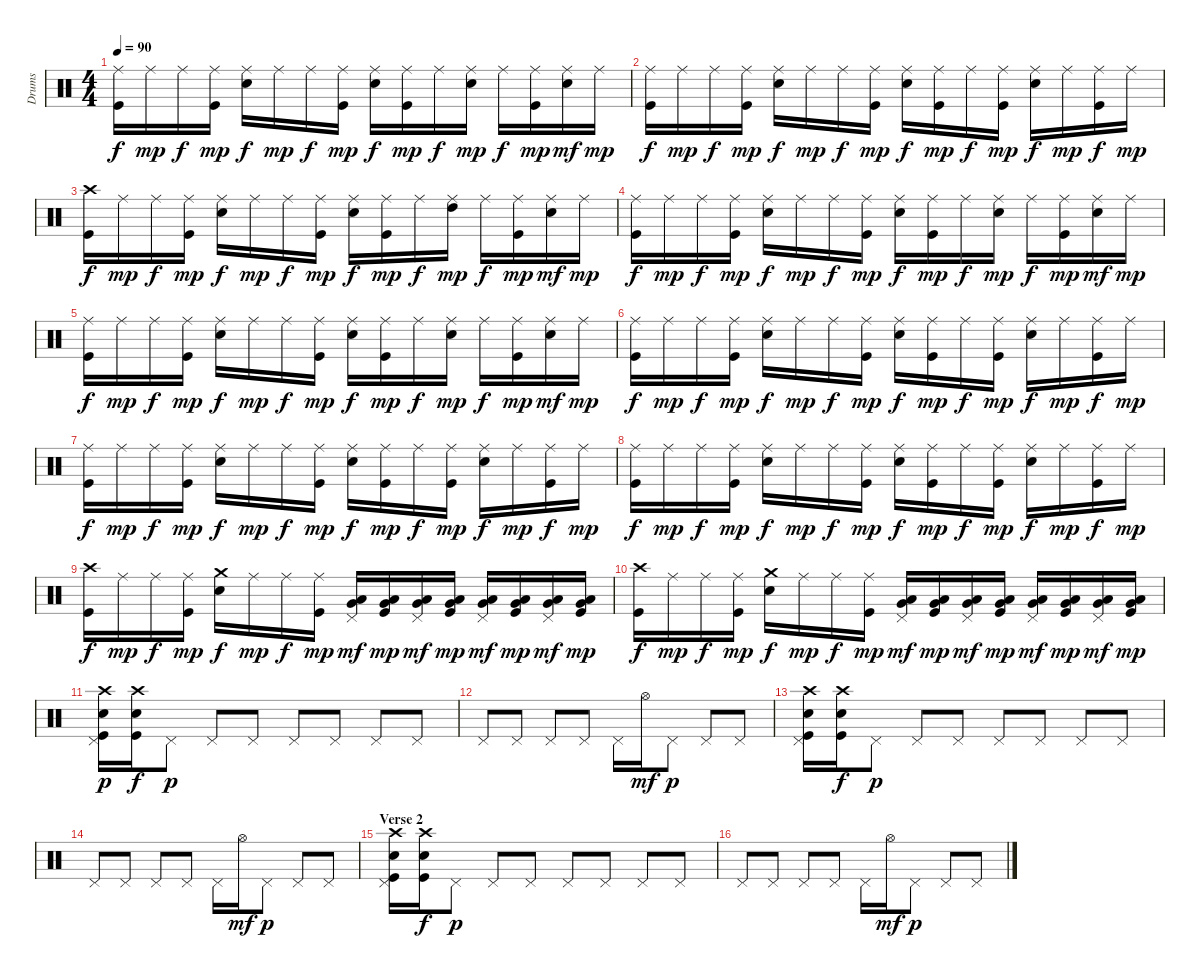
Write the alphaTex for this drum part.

\track ("Drums" "Drums") {instrument percussion}
\staff {score}
\articulation defaults
\ts (4 4)
\tempo 90
\clef neutral
\ks c
("Ride (middle)" "Kick (hit)").16{dy f} "Ride (middle)".16{dy mp} "Ride (middle)".16{dy f} ("Ride (middle)" "Kick (hit)").16{dy mp} ("Ride (middle)" "Snare (hit) 2").16{dy f} "Ride (middle)".16{dy mp} "Ride (middle)".16{dy f} ("Ride (middle)" "Kick (hit)").16{dy mp} ("Ride (middle)" "Snare (hit) 2").16{dy f} ("Ride (middle)" "Kick (hit)").16{dy mp} "Ride (middle)".16{dy f} ("Ride (middle)" "Snare (hit) 2").16{dy mp} "Ride (middle)".16{dy f} ("Ride (middle)" "Kick (hit)").16{dy mp} ("Ride (middle)" "Snare (hit) 2").16{dy mf} "Ride (middle)".16{dy mp} |
("Ride (middle)" "Kick (hit)").16{dy f} "Ride (middle)".16{dy mp} "Ride (middle)".16{dy f} ("Ride (middle)" "Kick (hit)").16{dy mp} ("Ride (middle)" "Snare (hit) 2").16{dy f} "Ride (middle)".16{dy mp} "Ride (middle)".16{dy f} ("Ride (middle)" "Kick (hit)").16{dy mp} ("Ride (middle)" "Snare (hit) 2").16{dy f} ("Ride (middle)" "Kick (hit)").16{dy mp} "Ride (middle)".16{dy f} ("Ride (middle)" "Kick (hit)").16{dy mp} ("Ride (middle)" "Snare (hit) 2").16{dy f} "Ride (middle)".16{dy mp} ("Ride (middle)" "Kick (hit)").16{dy f} "Ride (middle)".16{dy mp} |
("Crash high (hit)" "Kick (hit)").16{dy f} "Ride (middle)".16{dy mp} "Ride (middle)".16{dy f} ("Ride (middle)" "Kick (hit)").16{dy mp} ("Ride (middle)" "Snare (hit) 2").16{dy f} "Ride (middle)".16{dy mp} "Ride (middle)".16{dy f} ("Ride (middle)" "Kick (hit)").16{dy mp} ("Ride (middle)" "Snare (hit) 2").16{dy f} ("Ride (middle)" "Kick (hit)").16{dy mp} "Ride (middle)".16{dy f} ("Ride (middle)" "High Tom (hit)").16{dy mp} "Ride (middle)".16{dy f} ("Ride (middle)" "Kick (hit)").16{dy mp} ("Ride (middle)" "Snare (hit) 2").16{dy mf} "Ride (middle)".16{dy mp} |
("Ride (middle)" "Kick (hit)").16{dy f} "Ride (middle)".16{dy mp} "Ride (middle)".16{dy f} ("Ride (middle)" "Kick (hit)").16{dy mp} ("Ride (middle)" "Snare (hit) 2").16{dy f} "Ride (middle)".16{dy mp} "Ride (middle)".16{dy f} ("Ride (middle)" "Kick (hit)").16{dy mp} ("Ride (middle)" "Snare (hit) 2").16{dy f} ("Ride (middle)" "Kick (hit)").16{dy mp} "Ride (middle)".16{dy f} ("Ride (middle)" "Snare (hit) 2").16{dy mp} "Ride (middle)".16{dy f} ("Ride (middle)" "Kick (hit)").16{dy mp} ("Ride (middle)" "Snare (hit) 2").16{dy mf} "Ride (middle)".16{dy mp} |
("Ride (middle)" "Kick (hit)").16{dy f} "Ride (middle)".16{dy mp} "Ride (middle)".16{dy f} ("Ride (middle)" "Kick (hit)").16{dy mp} ("Ride (middle)" "Snare (hit) 2").16{dy f} "Ride (middle)".16{dy mp} "Ride (middle)".16{dy f} ("Ride (middle)" "Kick (hit)").16{dy mp} ("Ride (middle)" "Snare (hit) 2").16{dy f} ("Ride (middle)" "Kick (hit)").16{dy mp} "Ride (middle)".16{dy f} ("Ride (middle)" "Snare (hit) 2").16{dy mp} "Ride (middle)".16{dy f} ("Ride (middle)" "Kick (hit)").16{dy mp} ("Ride (middle)" "Snare (hit) 2").16{dy mf} "Ride (middle)".16{dy mp} |
("Ride (middle)" "Kick (hit)").16{dy f} "Ride (middle)".16{dy mp} "Ride (middle)".16{dy f} ("Ride (middle)" "Kick (hit)").16{dy mp} ("Ride (middle)" "Snare (hit) 2").16{dy f} "Ride (middle)".16{dy mp} "Ride (middle)".16{dy f} ("Ride (middle)" "Kick (hit)").16{dy mp} ("Ride (middle)" "Snare (hit) 2").16{dy f} ("Ride (middle)" "Kick (hit)").16{dy mp} "Ride (middle)".16{dy f} ("Ride (middle)" "Kick (hit)").16{dy mp} ("Ride (middle)" "Snare (hit) 2").16{dy f} "Ride (middle)".16{dy mp} ("Ride (middle)" "Kick (hit)").16{dy f} "Ride (middle)".16{dy mp} |
("Ride (middle)" "Kick (hit)").16{dy f} "Ride (middle)".16{dy mp} "Ride (middle)".16{dy f} ("Ride (middle)" "Kick (hit)").16{dy mp} ("Ride (middle)" "Snare (hit) 2").16{dy f} "Ride (middle)".16{dy mp} "Ride (middle)".16{dy f} ("Ride (middle)" "Kick (hit)").16{dy mp} ("Ride (middle)" "Snare (hit) 2").16{dy f} ("Ride (middle)" "Kick (hit)").16{dy mp} "Ride (middle)".16{dy f} ("Ride (middle)" "Kick (hit)").16{dy mp} ("Ride (middle)" "Snare (hit) 2").16{dy f} "Ride (middle)".16{dy mp} ("Ride (middle)" "Kick (hit)").16{dy f} "Ride (middle)".16{dy mp} |
("Ride (middle)" "Kick (hit)").16{dy f} "Ride (middle)".16{dy mp} "Ride (middle)".16{dy f} ("Ride (middle)" "Kick (hit)").16{dy mp} ("Ride (middle)" "Snare (hit) 2").16{dy f} "Ride (middle)".16{dy mp} "Ride (middle)".16{dy f} ("Ride (middle)" "Kick (hit)").16{dy mp} ("Ride (middle)" "Snare (hit) 2").16{dy f} ("Ride (middle)" "Kick (hit)").16{dy mp} "Ride (middle)".16{dy f} ("Ride (middle)" "Kick (hit)").16{dy mp} ("Ride (middle)" "Snare (hit) 2").16{dy f} "Ride (middle)".16{dy mp} ("Ride (middle)" "Kick (hit)").16{dy f} "Ride (middle)".16{dy mp} |
("Crash high (hit)" "Kick (hit)").16{dy f} "Ride (middle)".16{dy mp} "Ride (middle)".16{dy f} ("Ride (middle)" "Kick (hit)").16{dy mp} ("Crash medium (hit)" "Snare (hit) 2").16{dy f} "Ride (middle)".16{dy mp} "Ride (middle)".16{dy f} ("Ride (middle)" "Kick (hit)").16{dy mp} ("Pedal Hi-Hat (hit)" "Very Low Tom (hit)" "Low Tom (hit)").16{dy mf} ("Very Low Tom (hit)" "Low Tom (hit)" "Kick (hit)").16{dy mp} ("Pedal Hi-Hat (hit)" "Very Low Tom (hit)" "Low Tom (hit)").16{dy mf} ("Very Low Tom (hit)" "Low Tom (hit)" "Kick (hit)").16{dy mp} ("Pedal Hi-Hat (hit)" "Very Low Tom (hit)" "Low Tom (hit)").16{dy mf} ("Very Low Tom (hit)" "Low Tom (hit)" "Kick (hit)").16{dy mp} ("Pedal Hi-Hat (hit)" "Very Low Tom (hit)" "Low Tom (hit)").16{dy mf} ("Very Low Tom (hit)" "Low Tom (hit)" "Kick (hit)").16{dy mp} |
("Crash high (hit)" "Kick (hit)").16{dy f} "Ride (middle)".16{dy mp} "Ride (middle)".16{dy f} ("Ride (middle)" "Kick (hit)").16{dy mp} ("Crash medium (hit)" "Snare (hit) 2").16{dy f} "Ride (middle)".16{dy mp} "Ride (middle)".16{dy f} ("Ride (middle)" "Kick (hit)").16{dy mp} ("Pedal Hi-Hat (hit)" "Very Low Tom (hit)" "Low Tom (hit)").16{dy mf} ("Very Low Tom (hit)" "Low Tom (hit)" "Kick (hit)").16{dy mp} ("Pedal Hi-Hat (hit)" "Very Low Tom (hit)" "Low Tom (hit)").16{dy mf} ("Very Low Tom (hit)" "Low Tom (hit)" "Kick (hit)").16{dy mp} ("Pedal Hi-Hat (hit)" "Very Low Tom (hit)" "Low Tom (hit)").16{dy mf} ("Very Low Tom (hit)" "Low Tom (hit)" "Kick (hit)").16{dy mp} ("Pedal Hi-Hat (hit)" "Very Low Tom (hit)" "Low Tom (hit)").16{dy mf} ("Very Low Tom (hit)" "Low Tom (hit)" "Kick (hit)").16{dy mp} |
("Crash high (hit)" "Pedal Hi-Hat (hit)" "Snare (hit) 2" "Kick (hit)").16{dy p} ("Crash high (hit)" "Snare (hit) 2" "Kick (hit)").16{dy f} "Pedal Hi-Hat (hit)".8{dy p} "Pedal Hi-Hat (hit)".8 "Pedal Hi-Hat (hit)".8 "Pedal Hi-Hat (hit)".8 "Pedal Hi-Hat (hit)".8 "Pedal Hi-Hat (hit)".8 "Pedal Hi-Hat (hit)".8 |
"Pedal Hi-Hat (hit)".8 "Pedal Hi-Hat (hit)".8 "Pedal Hi-Hat (hit)".8 "Pedal Hi-Hat (hit)".8 "Pedal Hi-Hat (hit)".16 "Hi-Hat (open)".16{dy mf} "Pedal Hi-Hat (hit)".8{dy p} "Pedal Hi-Hat (hit)".8 "Pedal Hi-Hat (hit)".8 |
("Crash high (hit)" "Pedal Hi-Hat (hit)" "Snare (hit) 2" "Kick (hit)").16 ("Crash high (hit)" "Snare (hit) 2" "Kick (hit)").16{dy f} "Pedal Hi-Hat (hit)".8{dy p} "Pedal Hi-Hat (hit)".8 "Pedal Hi-Hat (hit)".8 "Pedal Hi-Hat (hit)".8 "Pedal Hi-Hat (hit)".8 "Pedal Hi-Hat (hit)".8 "Pedal Hi-Hat (hit)".8 |
"Pedal Hi-Hat (hit)".8 "Pedal Hi-Hat (hit)".8 "Pedal Hi-Hat (hit)".8 "Pedal Hi-Hat (hit)".8 "Pedal Hi-Hat (hit)".16 "Hi-Hat (open)".16{dy mf} "Pedal Hi-Hat (hit)".8{dy p} "Pedal Hi-Hat (hit)".8 "Pedal Hi-Hat (hit)".8 |
\section ("" "Verse 2")
("Crash high (hit)" "Pedal Hi-Hat (hit)" "Snare (hit) 2" "Kick (hit)").16 ("Crash high (hit)" "Snare (hit) 2" "Kick (hit)").16{dy f} "Pedal Hi-Hat (hit)".8{dy p} "Pedal Hi-Hat (hit)".8 "Pedal Hi-Hat (hit)".8 "Pedal Hi-Hat (hit)".8 "Pedal Hi-Hat (hit)".8 "Pedal Hi-Hat (hit)".8 "Pedal Hi-Hat (hit)".8 |
"Pedal Hi-Hat (hit)".8 "Pedal Hi-Hat (hit)".8 "Pedal Hi-Hat (hit)".8 "Pedal Hi-Hat (hit)".8 "Pedal Hi-Hat (hit)".16 "Hi-Hat (open)".16{dy mf} "Pedal Hi-Hat (hit)".8{dy p} "Pedal Hi-Hat (hit)".8 "Pedal Hi-Hat (hit)".8
